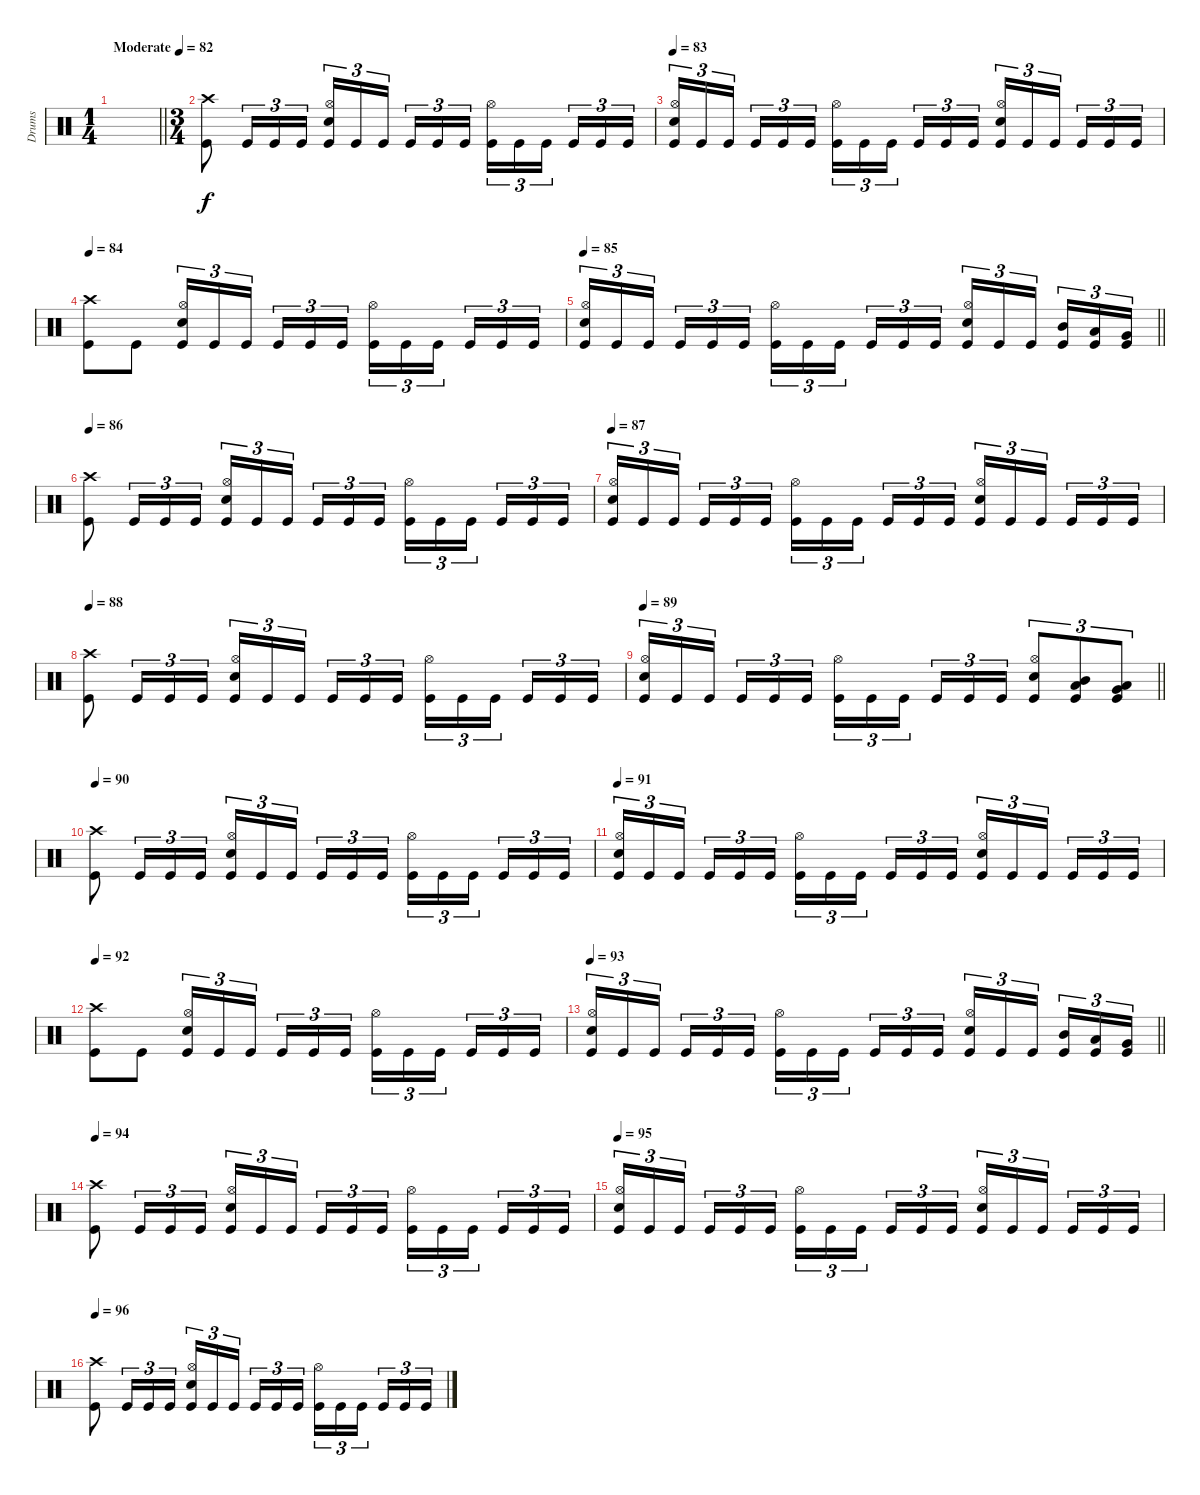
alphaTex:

\track ("Drums" "Drums") {instrument percussion}
\staff
\articulation defaults
\ts (1 4)
\tempo (82 "Moderate")
\clef neutral
\barLineRight lightlight
\ks c
|
\ts (3 4)
("Crash high (hit)" "Kick (hit)").8 "Kick (hit)".16{tu (3 2)} "Kick (hit)".16{tu (3 2)} "Kick (hit)".16{tu (3 2)} ("Hi-Hat (open)" "Electric Snare (hit)" "Kick (hit)").16{tu (3 2)} "Kick (hit)".16{tu (3 2)} "Kick (hit)".16{tu (3 2) beam splitsecondary} "Kick (hit)".16{tu (3 2)} "Kick (hit)".16{tu (3 2)} "Kick (hit)".16{tu (3 2)} ("Hi-Hat (open)" "Kick (hit)").16{tu (3 2)} "Kick (hit)".16{tu (3 2)} "Kick (hit)".16{tu (3 2) beam splitsecondary} "Kick (hit)".16{tu (3 2)} "Kick (hit)".16{tu (3 2)} "Kick (hit)".16{tu (3 2)} |
\tempo 83
("Hi-Hat (open)" "Electric Snare (hit)" "Kick (hit)").16{tu (3 2)} "Kick (hit)".16{tu (3 2)} "Kick (hit)".16{tu (3 2) beam splitsecondary} "Kick (hit)".16{tu (3 2)} "Kick (hit)".16{tu (3 2)} "Kick (hit)".16{tu (3 2)} ("Hi-Hat (open)" "Kick (hit)").16{tu (3 2)} "Kick (hit)".16{tu (3 2)} "Kick (hit)".16{tu (3 2) beam splitsecondary} "Kick (hit)".16{tu (3 2)} "Kick (hit)".16{tu (3 2)} "Kick (hit)".16{tu (3 2)} ("Hi-Hat (open)" "Electric Snare (hit)" "Kick (hit)").16{tu (3 2)} "Kick (hit)".16{tu (3 2)} "Kick (hit)".16{tu (3 2) beam splitsecondary} "Kick (hit)".16{tu (3 2)} "Kick (hit)".16{tu (3 2)} "Kick (hit)".16{tu (3 2)} |
\tempo 84
("Crash high (hit)" "Kick (hit)").8 "Kick (hit)".8 ("Hi-Hat (open)" "Electric Snare (hit)" "Kick (hit)").16{tu (3 2)} "Kick (hit)".16{tu (3 2)} "Kick (hit)".16{tu (3 2) beam splitsecondary} "Kick (hit)".16{tu (3 2)} "Kick (hit)".16{tu (3 2)} "Kick (hit)".16{tu (3 2)} ("Hi-Hat (open)" "Kick (hit)").16{tu (3 2)} "Kick (hit)".16{tu (3 2)} "Kick (hit)".16{tu (3 2) beam splitsecondary} "Kick (hit)".16{tu (3 2)} "Kick (hit)".16{tu (3 2)} "Kick (hit)".16{tu (3 2)} |
\tempo 85
\barLineRight lightlight
("Hi-Hat (open)" "Electric Snare (hit)" "Kick (hit)").16{tu (3 2)} "Kick (hit)".16{tu (3 2)} "Kick (hit)".16{tu (3 2) beam splitsecondary} "Kick (hit)".16{tu (3 2)} "Kick (hit)".16{tu (3 2)} "Kick (hit)".16{tu (3 2)} ("Hi-Hat (open)" "Kick (hit)").16{tu (3 2)} "Kick (hit)".16{tu (3 2)} "Kick (hit)".16{tu (3 2) beam splitsecondary} "Kick (hit)".16{tu (3 2)} "Kick (hit)".16{tu (3 2)} "Kick (hit)".16{tu (3 2)} ("Hi-Hat (open)" "Electric Snare (hit)" "Kick (hit)").16{tu (3 2)} "Kick (hit)".16{tu (3 2)} "Kick (hit)".16{tu (3 2) beam splitsecondary} ("Mid Tom (hit)" "Kick (hit)").16{tu (3 2)} ("Low Tom (hit)" "Kick (hit)").16{tu (3 2)} ("Very Low Tom (hit)" "Kick (hit)").16{tu (3 2)} |
\tempo 86
("Crash high (hit)" "Kick (hit)").8 "Kick (hit)".16{tu (3 2)} "Kick (hit)".16{tu (3 2)} "Kick (hit)".16{tu (3 2)} ("Hi-Hat (open)" "Electric Snare (hit)" "Kick (hit)").16{tu (3 2)} "Kick (hit)".16{tu (3 2)} "Kick (hit)".16{tu (3 2) beam splitsecondary} "Kick (hit)".16{tu (3 2)} "Kick (hit)".16{tu (3 2)} "Kick (hit)".16{tu (3 2)} ("Hi-Hat (open)" "Kick (hit)").16{tu (3 2)} "Kick (hit)".16{tu (3 2)} "Kick (hit)".16{tu (3 2) beam splitsecondary} "Kick (hit)".16{tu (3 2)} "Kick (hit)".16{tu (3 2)} "Kick (hit)".16{tu (3 2)} |
\tempo 87
("Hi-Hat (open)" "Electric Snare (hit)" "Kick (hit)").16{tu (3 2)} "Kick (hit)".16{tu (3 2)} "Kick (hit)".16{tu (3 2) beam splitsecondary} "Kick (hit)".16{tu (3 2)} "Kick (hit)".16{tu (3 2)} "Kick (hit)".16{tu (3 2)} ("Hi-Hat (open)" "Kick (hit)").16{tu (3 2)} "Kick (hit)".16{tu (3 2)} "Kick (hit)".16{tu (3 2) beam splitsecondary} "Kick (hit)".16{tu (3 2)} "Kick (hit)".16{tu (3 2)} "Kick (hit)".16{tu (3 2)} ("Hi-Hat (open)" "Electric Snare (hit)" "Kick (hit)").16{tu (3 2)} "Kick (hit)".16{tu (3 2)} "Kick (hit)".16{tu (3 2) beam splitsecondary} "Kick (hit)".16{tu (3 2)} "Kick (hit)".16{tu (3 2)} "Kick (hit)".16{tu (3 2)} |
\tempo 88
("Crash high (hit)" "Kick (hit)").8 "Kick (hit)".16{tu (3 2)} "Kick (hit)".16{tu (3 2)} "Kick (hit)".16{tu (3 2)} ("Hi-Hat (open)" "Electric Snare (hit)" "Kick (hit)").16{tu (3 2)} "Kick (hit)".16{tu (3 2)} "Kick (hit)".16{tu (3 2) beam splitsecondary} "Kick (hit)".16{tu (3 2)} "Kick (hit)".16{tu (3 2)} "Kick (hit)".16{tu (3 2)} ("Hi-Hat (open)" "Kick (hit)").16{tu (3 2)} "Kick (hit)".16{tu (3 2)} "Kick (hit)".16{tu (3 2) beam splitsecondary} "Kick (hit)".16{tu (3 2)} "Kick (hit)".16{tu (3 2)} "Kick (hit)".16{tu (3 2)} |
\tempo 89
\barLineRight lightlight
("Hi-Hat (open)" "Electric Snare (hit)" "Kick (hit)").16{tu (3 2)} "Kick (hit)".16{tu (3 2)} "Kick (hit)".16{tu (3 2) beam splitsecondary} "Kick (hit)".16{tu (3 2)} "Kick (hit)".16{tu (3 2)} "Kick (hit)".16{tu (3 2)} ("Hi-Hat (open)" "Kick (hit)").16{tu (3 2)} "Kick (hit)".16{tu (3 2)} "Kick (hit)".16{tu (3 2) beam splitsecondary} "Kick (hit)".16{tu (3 2)} "Kick (hit)".16{tu (3 2)} "Kick (hit)".16{tu (3 2)} ("Hi-Hat (open)" "Electric Snare (hit)" "Kick (hit)").8{tu (3 2)} ("Mid Tom (hit)" "Low Tom (hit)" "Kick (hit)").8{tu (3 2)} ("Low Tom (hit)" "Very Low Tom (hit)" "Kick (hit)").8{tu (3 2)} |
\tempo 90
("Crash high (hit)" "Kick (hit)").8 "Kick (hit)".16{tu (3 2)} "Kick (hit)".16{tu (3 2)} "Kick (hit)".16{tu (3 2)} ("Hi-Hat (open)" "Electric Snare (hit)" "Kick (hit)").16{tu (3 2)} "Kick (hit)".16{tu (3 2)} "Kick (hit)".16{tu (3 2) beam splitsecondary} "Kick (hit)".16{tu (3 2)} "Kick (hit)".16{tu (3 2)} "Kick (hit)".16{tu (3 2)} ("Hi-Hat (open)" "Kick (hit)").16{tu (3 2)} "Kick (hit)".16{tu (3 2)} "Kick (hit)".16{tu (3 2) beam splitsecondary} "Kick (hit)".16{tu (3 2)} "Kick (hit)".16{tu (3 2)} "Kick (hit)".16{tu (3 2)} |
\tempo 91
("Hi-Hat (open)" "Electric Snare (hit)" "Kick (hit)").16{tu (3 2)} "Kick (hit)".16{tu (3 2)} "Kick (hit)".16{tu (3 2) beam splitsecondary} "Kick (hit)".16{tu (3 2)} "Kick (hit)".16{tu (3 2)} "Kick (hit)".16{tu (3 2)} ("Hi-Hat (open)" "Kick (hit)").16{tu (3 2)} "Kick (hit)".16{tu (3 2)} "Kick (hit)".16{tu (3 2) beam splitsecondary} "Kick (hit)".16{tu (3 2)} "Kick (hit)".16{tu (3 2)} "Kick (hit)".16{tu (3 2)} ("Hi-Hat (open)" "Electric Snare (hit)" "Kick (hit)").16{tu (3 2)} "Kick (hit)".16{tu (3 2)} "Kick (hit)".16{tu (3 2) beam splitsecondary} "Kick (hit)".16{tu (3 2)} "Kick (hit)".16{tu (3 2)} "Kick (hit)".16{tu (3 2)} |
\tempo 92
("Crash high (hit)" "Kick (hit)").8 "Kick (hit)".8 ("Hi-Hat (open)" "Electric Snare (hit)" "Kick (hit)").16{tu (3 2)} "Kick (hit)".16{tu (3 2)} "Kick (hit)".16{tu (3 2) beam splitsecondary} "Kick (hit)".16{tu (3 2)} "Kick (hit)".16{tu (3 2)} "Kick (hit)".16{tu (3 2)} ("Hi-Hat (open)" "Kick (hit)").16{tu (3 2)} "Kick (hit)".16{tu (3 2)} "Kick (hit)".16{tu (3 2) beam splitsecondary} "Kick (hit)".16{tu (3 2)} "Kick (hit)".16{tu (3 2)} "Kick (hit)".16{tu (3 2)} |
\tempo 93
\barLineRight lightlight
("Hi-Hat (open)" "Electric Snare (hit)" "Kick (hit)").16{tu (3 2)} "Kick (hit)".16{tu (3 2)} "Kick (hit)".16{tu (3 2) beam splitsecondary} "Kick (hit)".16{tu (3 2)} "Kick (hit)".16{tu (3 2)} "Kick (hit)".16{tu (3 2)} ("Hi-Hat (open)" "Kick (hit)").16{tu (3 2)} "Kick (hit)".16{tu (3 2)} "Kick (hit)".16{tu (3 2) beam splitsecondary} "Kick (hit)".16{tu (3 2)} "Kick (hit)".16{tu (3 2)} "Kick (hit)".16{tu (3 2)} ("Hi-Hat (open)" "Electric Snare (hit)" "Kick (hit)").16{tu (3 2)} "Kick (hit)".16{tu (3 2)} "Kick (hit)".16{tu (3 2) beam splitsecondary} ("Mid Tom (hit)" "Kick (hit)").16{tu (3 2)} ("Low Tom (hit)" "Kick (hit)").16{tu (3 2)} ("Very Low Tom (hit)" "Kick (hit)").16{tu (3 2)} |
\tempo 94
("Crash high (hit)" "Kick (hit)").8 "Kick (hit)".16{tu (3 2)} "Kick (hit)".16{tu (3 2)} "Kick (hit)".16{tu (3 2)} ("Hi-Hat (open)" "Electric Snare (hit)" "Kick (hit)").16{tu (3 2)} "Kick (hit)".16{tu (3 2)} "Kick (hit)".16{tu (3 2) beam splitsecondary} "Kick (hit)".16{tu (3 2)} "Kick (hit)".16{tu (3 2)} "Kick (hit)".16{tu (3 2)} ("Hi-Hat (open)" "Kick (hit)").16{tu (3 2)} "Kick (hit)".16{tu (3 2)} "Kick (hit)".16{tu (3 2) beam splitsecondary} "Kick (hit)".16{tu (3 2)} "Kick (hit)".16{tu (3 2)} "Kick (hit)".16{tu (3 2)} |
\tempo 95
("Hi-Hat (open)" "Electric Snare (hit)" "Kick (hit)").16{tu (3 2)} "Kick (hit)".16{tu (3 2)} "Kick (hit)".16{tu (3 2) beam splitsecondary} "Kick (hit)".16{tu (3 2)} "Kick (hit)".16{tu (3 2)} "Kick (hit)".16{tu (3 2)} ("Hi-Hat (open)" "Kick (hit)").16{tu (3 2)} "Kick (hit)".16{tu (3 2)} "Kick (hit)".16{tu (3 2) beam splitsecondary} "Kick (hit)".16{tu (3 2)} "Kick (hit)".16{tu (3 2)} "Kick (hit)".16{tu (3 2)} ("Hi-Hat (open)" "Electric Snare (hit)" "Kick (hit)").16{tu (3 2)} "Kick (hit)".16{tu (3 2)} "Kick (hit)".16{tu (3 2) beam splitsecondary} "Kick (hit)".16{tu (3 2)} "Kick (hit)".16{tu (3 2)} "Kick (hit)".16{tu (3 2)} |
\tempo 96
("Crash high (hit)" "Kick (hit)").8 "Kick (hit)".16{tu (3 2)} "Kick (hit)".16{tu (3 2)} "Kick (hit)".16{tu (3 2)} ("Hi-Hat (open)" "Electric Snare (hit)" "Kick (hit)").16{tu (3 2)} "Kick (hit)".16{tu (3 2)} "Kick (hit)".16{tu (3 2) beam splitsecondary} "Kick (hit)".16{tu (3 2)} "Kick (hit)".16{tu (3 2)} "Kick (hit)".16{tu (3 2)} ("Hi-Hat (open)" "Kick (hit)").16{tu (3 2)} "Kick (hit)".16{tu (3 2)} "Kick (hit)".16{tu (3 2) beam splitsecondary} "Kick (hit)".16{tu (3 2)} "Kick (hit)".16{tu (3 2)} "Kick (hit)".16{tu (3 2)}
